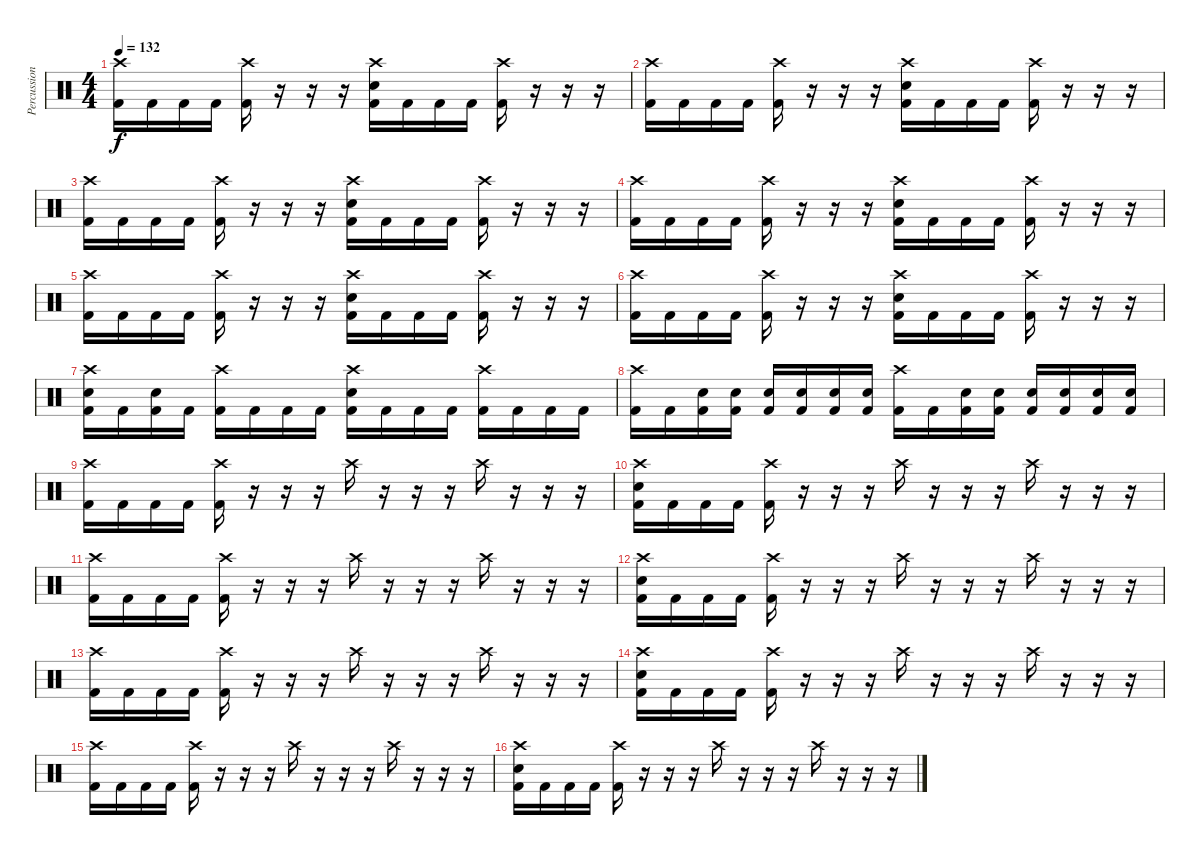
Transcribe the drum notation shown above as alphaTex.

\track ("Percussion" "Percussion") {instrument percussion}
\staff {score}
\articulation defaults
\ts (4 4)
\tempo 132
\clef neutral
\ks c
("Crash high (hit)" "Kick (hit) 2").16{dy f} "Kick (hit) 2".16 "Kick (hit) 2".16 "Kick (hit) 2".16 ("Crash high (hit)" "Kick (hit) 2").16 r.16 r.16 r.16 ("Crash high (hit)" "Electric Snare (hit)" "Kick (hit) 2").16 "Kick (hit) 2".16 "Kick (hit) 2".16 "Kick (hit) 2".16 ("Crash high (hit)" "Kick (hit) 2").16 r.16 r.16 r.16 |
("Crash high (hit)" "Kick (hit) 2").16 "Kick (hit) 2".16 "Kick (hit) 2".16 "Kick (hit) 2".16 ("Crash high (hit)" "Kick (hit) 2").16 r.16 r.16 r.16 ("Crash high (hit)" "Electric Snare (hit)" "Kick (hit) 2").16 "Kick (hit) 2".16 "Kick (hit) 2".16 "Kick (hit) 2".16 ("Crash high (hit)" "Kick (hit) 2").16 r.16 r.16 r.16 |
("Crash high (hit)" "Kick (hit) 2").16 "Kick (hit) 2".16 "Kick (hit) 2".16 "Kick (hit) 2".16 ("Crash high (hit)" "Kick (hit) 2").16 r.16 r.16 r.16 ("Crash high (hit)" "Electric Snare (hit)" "Kick (hit) 2").16 "Kick (hit) 2".16 "Kick (hit) 2".16 "Kick (hit) 2".16 ("Crash high (hit)" "Kick (hit) 2").16 r.16 r.16 r.16 |
("Crash high (hit)" "Kick (hit) 2").16 "Kick (hit) 2".16 "Kick (hit) 2".16 "Kick (hit) 2".16 ("Crash high (hit)" "Kick (hit) 2").16 r.16 r.16 r.16 ("Crash high (hit)" "Electric Snare (hit)" "Kick (hit) 2").16 "Kick (hit) 2".16 "Kick (hit) 2".16 "Kick (hit) 2".16 ("Crash high (hit)" "Kick (hit) 2").16 r.16 r.16 r.16 |
("Crash high (hit)" "Kick (hit) 2").16 "Kick (hit) 2".16 "Kick (hit) 2".16 "Kick (hit) 2".16 ("Crash high (hit)" "Kick (hit) 2").16 r.16 r.16 r.16 ("Crash high (hit)" "Electric Snare (hit)" "Kick (hit) 2").16 "Kick (hit) 2".16 "Kick (hit) 2".16 "Kick (hit) 2".16 ("Crash high (hit)" "Kick (hit) 2").16 r.16 r.16 r.16 |
("Crash high (hit)" "Kick (hit) 2").16 "Kick (hit) 2".16 "Kick (hit) 2".16 "Kick (hit) 2".16 ("Crash high (hit)" "Kick (hit) 2").16 r.16 r.16 r.16 ("Crash high (hit)" "Electric Snare (hit)" "Kick (hit) 2").16 "Kick (hit) 2".16 "Kick (hit) 2".16 "Kick (hit) 2".16 ("Crash high (hit)" "Kick (hit) 2").16 r.16 r.16 r.16 |
("Crash high (hit)" "Electric Snare (hit)" "Kick (hit) 2").16 "Kick (hit) 2".16 ("Electric Snare (hit)" "Kick (hit) 2").16 "Kick (hit) 2".16 ("Crash high (hit)" "Kick (hit) 2").16 "Kick (hit) 2".16 "Kick (hit) 2".16 "Kick (hit) 2".16 ("Crash high (hit)" "Electric Snare (hit)" "Kick (hit) 2").16 "Kick (hit) 2".16 "Kick (hit) 2".16 "Kick (hit) 2".16 ("Crash high (hit)" "Kick (hit) 2").16 "Kick (hit) 2".16 "Kick (hit) 2".16 "Kick (hit) 2".16 |
("Crash high (hit)" "Kick (hit) 2").16 "Kick (hit) 2".16 ("Electric Snare (hit)" "Kick (hit) 2").16 ("Electric Snare (hit)" "Kick (hit) 2").16 ("Electric Snare (hit)" "Kick (hit) 2").16 ("Electric Snare (hit)" "Kick (hit) 2").16 ("Electric Snare (hit)" "Kick (hit) 2").16 ("Electric Snare (hit)" "Kick (hit) 2").16 ("Crash high (hit)" "Kick (hit) 2").16 "Kick (hit) 2".16 ("Electric Snare (hit)" "Kick (hit) 2").16 ("Electric Snare (hit)" "Kick (hit) 2").16 ("Electric Snare (hit)" "Kick (hit) 2").16 ("Electric Snare (hit)" "Kick (hit) 2").16 ("Electric Snare (hit)" "Kick (hit) 2").16 ("Electric Snare (hit)" "Kick (hit) 2").16 |
("Crash high (hit)" "Kick (hit) 2").16 "Kick (hit) 2".16 "Kick (hit) 2".16 "Kick (hit) 2".16 ("Crash high (hit)" "Kick (hit) 2").16 r.16 r.16 r.16 "Crash high (hit)".16 r.16 r.16 r.16 "Crash high (hit)".16 r.16 r.16 r.16 |
("Crash high (hit)" "Electric Snare (hit)" "Kick (hit) 2").16 "Kick (hit) 2".16 "Kick (hit) 2".16 "Kick (hit) 2".16 ("Crash high (hit)" "Kick (hit) 2").16 r.16 r.16 r.16 "Crash high (hit)".16 r.16 r.16 r.16 "Crash high (hit)".16 r.16 r.16 r.16 |
("Crash high (hit)" "Kick (hit) 2").16 "Kick (hit) 2".16 "Kick (hit) 2".16 "Kick (hit) 2".16 ("Crash high (hit)" "Kick (hit) 2").16 r.16 r.16 r.16 "Crash high (hit)".16 r.16 r.16 r.16 "Crash high (hit)".16 r.16 r.16 r.16 |
("Crash high (hit)" "Electric Snare (hit)" "Kick (hit) 2").16 "Kick (hit) 2".16 "Kick (hit) 2".16 "Kick (hit) 2".16 ("Crash high (hit)" "Kick (hit) 2").16 r.16 r.16 r.16 "Crash high (hit)".16 r.16 r.16 r.16 "Crash high (hit)".16 r.16 r.16 r.16 |
("Crash high (hit)" "Kick (hit) 2").16 "Kick (hit) 2".16 "Kick (hit) 2".16 "Kick (hit) 2".16 ("Crash high (hit)" "Kick (hit) 2").16 r.16 r.16 r.16 "Crash high (hit)".16 r.16 r.16 r.16 "Crash high (hit)".16 r.16 r.16 r.16 |
("Crash high (hit)" "Electric Snare (hit)" "Kick (hit) 2").16 "Kick (hit) 2".16 "Kick (hit) 2".16 "Kick (hit) 2".16 ("Crash high (hit)" "Kick (hit) 2").16 r.16 r.16 r.16 "Crash high (hit)".16 r.16 r.16 r.16 "Crash high (hit)".16 r.16 r.16 r.16 |
("Crash high (hit)" "Kick (hit) 2").16 "Kick (hit) 2".16 "Kick (hit) 2".16 "Kick (hit) 2".16 ("Crash high (hit)" "Kick (hit) 2").16 r.16 r.16 r.16 "Crash high (hit)".16 r.16 r.16 r.16 "Crash high (hit)".16 r.16 r.16 r.16 |
("Crash high (hit)" "Electric Snare (hit)" "Kick (hit) 2").16 "Kick (hit) 2".16 "Kick (hit) 2".16 "Kick (hit) 2".16 ("Crash high (hit)" "Kick (hit) 2").16 r.16 r.16 r.16 "Crash high (hit)".16 r.16 r.16 r.16 "Crash high (hit)".16 r.16 r.16 r.16
